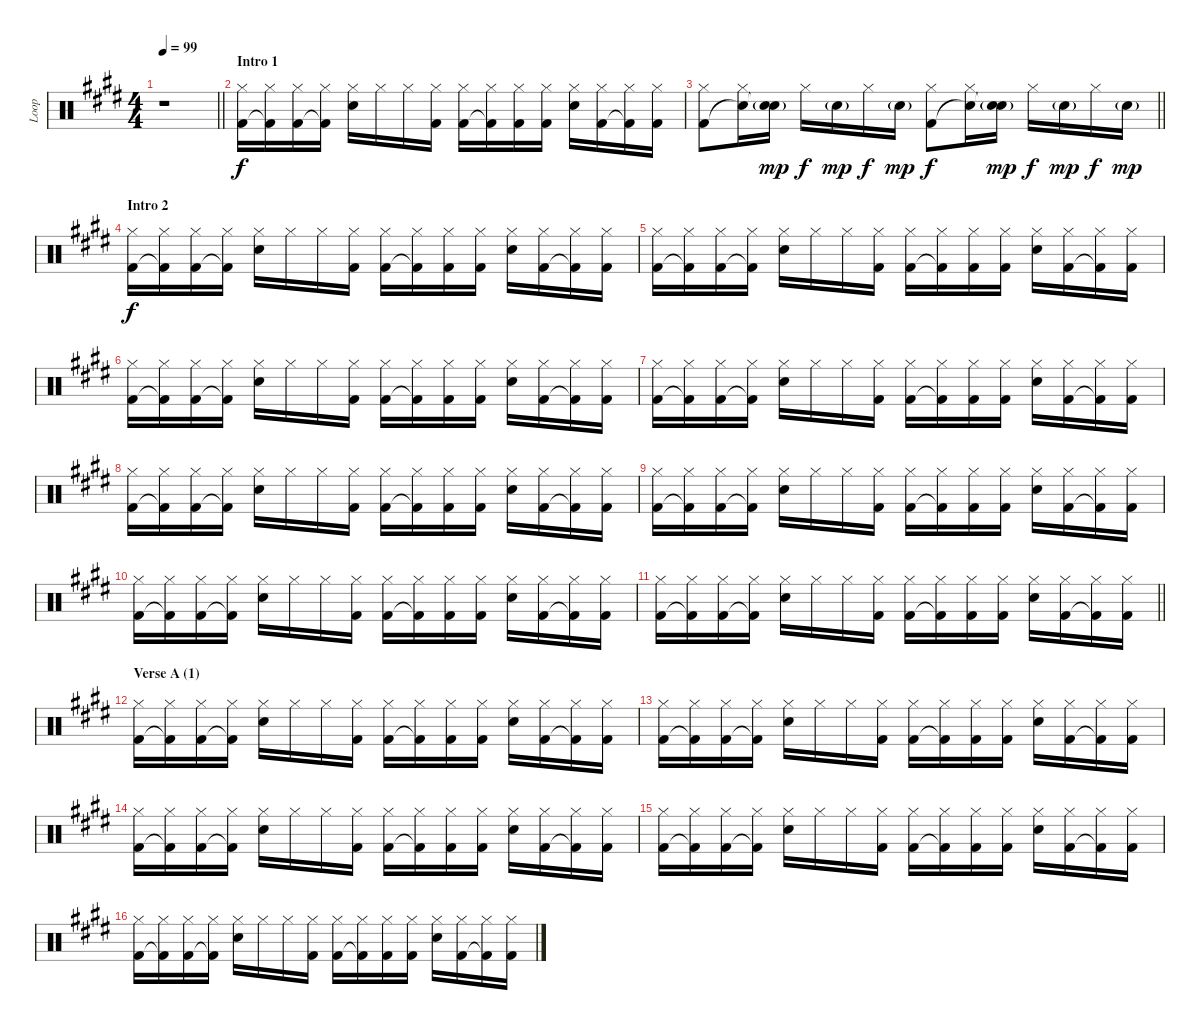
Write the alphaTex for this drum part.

\track ("Loop" "Loop") {instrument percussion}
\staff {score}
\articulation defaults
\ts (4 4)
\tempo 99
\clef neutral
\barLineRight lightlight
\ks c#minor
r.1{dy f} |
\section ("" "Intro 1")
("Hi-Hat (closed)" "Kick (hit) 2").16 ("Hi-Hat (closed)" "Kick (hit) 2"{t}).16 ("Hi-Hat (closed)" "Kick (hit) 2").16 ("Hi-Hat (closed)" "Kick (hit) 2"{t}).16 ("Hi-Hat (closed)" "Electric Snare (hit)").16 "Hi-Hat (closed)".16 "Hi-Hat (closed)".16 ("Hi-Hat (closed)" "Kick (hit) 2").16 ("Hi-Hat (closed)" "Kick (hit) 2").16 ("Hi-Hat (closed)" "Kick (hit) 2"{t}).16 ("Hi-Hat (closed)" "Kick (hit) 2").16 ("Hi-Hat (closed)" "Kick (hit) 2").16 ("Hi-Hat (closed)" "Electric Snare (hit)").16 ("Hi-Hat (closed)" "Kick (hit) 2").16 ("Hi-Hat (closed)" "Kick (hit) 2"{t}).16 ("Hi-Hat (closed)" "Kick (hit) 2").16 |
\barLineRight lightlight
("Hi-Hat (closed)" "Kick (hit) 2").8 ("Hi-Hat (closed)" "Snare (hit)"{t}).16 ("Electric Snare (hit)"{g} "Snare (hit)"{t}).16{dy mp} "Hi-Hat (closed)".16{dy f} "Electric Snare (hit)"{g}.16{dy mp} "Hi-Hat (closed)".16{dy f} "Electric Snare (hit)"{g}.16{dy mp} ("Hi-Hat (closed)" "Kick (hit) 2").8{dy f} ("Hi-Hat (closed)" "Snare (hit)"{t}).16 ("Electric Snare (hit)"{g} "Snare (hit)"{t}).16{dy mp} "Hi-Hat (closed)".16{dy f} "Electric Snare (hit)"{g}.16{dy mp} "Hi-Hat (closed)".16{dy f} "Electric Snare (hit)"{g}.16{dy mp} |
\section ("" "Intro 2")
("Hi-Hat (closed)" "Kick (hit) 2").16{dy f} ("Hi-Hat (closed)" "Kick (hit) 2"{t}).16 ("Hi-Hat (closed)" "Kick (hit) 2").16 ("Hi-Hat (closed)" "Kick (hit) 2"{t}).16 ("Hi-Hat (closed)" "Electric Snare (hit)").16 "Hi-Hat (closed)".16 "Hi-Hat (closed)".16 ("Hi-Hat (closed)" "Kick (hit) 2").16 ("Hi-Hat (closed)" "Kick (hit) 2").16 ("Hi-Hat (closed)" "Kick (hit) 2"{t}).16 ("Hi-Hat (closed)" "Kick (hit) 2").16 ("Hi-Hat (closed)" "Kick (hit) 2").16 ("Hi-Hat (closed)" "Electric Snare (hit)").16 ("Hi-Hat (closed)" "Kick (hit) 2").16 ("Hi-Hat (closed)" "Kick (hit) 2"{t}).16 ("Hi-Hat (closed)" "Kick (hit) 2").16 |
("Hi-Hat (closed)" "Kick (hit) 2").16 ("Hi-Hat (closed)" "Kick (hit) 2"{t}).16 ("Hi-Hat (closed)" "Kick (hit) 2").16 ("Hi-Hat (closed)" "Kick (hit) 2"{t}).16 ("Hi-Hat (closed)" "Electric Snare (hit)").16 "Hi-Hat (closed)".16 "Hi-Hat (closed)".16 ("Hi-Hat (closed)" "Kick (hit) 2").16 ("Hi-Hat (closed)" "Kick (hit) 2").16 ("Hi-Hat (closed)" "Kick (hit) 2"{t}).16 ("Hi-Hat (closed)" "Kick (hit) 2").16 ("Hi-Hat (closed)" "Kick (hit) 2").16 ("Hi-Hat (closed)" "Electric Snare (hit)").16 ("Hi-Hat (closed)" "Kick (hit) 2").16 ("Hi-Hat (closed)" "Kick (hit) 2"{t}).16 ("Hi-Hat (closed)" "Kick (hit) 2").16 |
("Hi-Hat (closed)" "Kick (hit) 2").16 ("Hi-Hat (closed)" "Kick (hit) 2"{t}).16 ("Hi-Hat (closed)" "Kick (hit) 2").16 ("Hi-Hat (closed)" "Kick (hit) 2"{t}).16 ("Hi-Hat (closed)" "Electric Snare (hit)").16 "Hi-Hat (closed)".16 "Hi-Hat (closed)".16 ("Hi-Hat (closed)" "Kick (hit) 2").16 ("Hi-Hat (closed)" "Kick (hit) 2").16 ("Hi-Hat (closed)" "Kick (hit) 2"{t}).16 ("Hi-Hat (closed)" "Kick (hit) 2").16 ("Hi-Hat (closed)" "Kick (hit) 2").16 ("Hi-Hat (closed)" "Electric Snare (hit)").16 ("Hi-Hat (closed)" "Kick (hit) 2").16 ("Hi-Hat (closed)" "Kick (hit) 2"{t}).16 ("Hi-Hat (closed)" "Kick (hit) 2").16 |
("Hi-Hat (closed)" "Kick (hit) 2").16 ("Hi-Hat (closed)" "Kick (hit) 2"{t}).16 ("Hi-Hat (closed)" "Kick (hit) 2").16 ("Hi-Hat (closed)" "Kick (hit) 2"{t}).16 ("Hi-Hat (closed)" "Electric Snare (hit)").16 "Hi-Hat (closed)".16 "Hi-Hat (closed)".16 ("Hi-Hat (closed)" "Kick (hit) 2").16 ("Hi-Hat (closed)" "Kick (hit) 2").16 ("Hi-Hat (closed)" "Kick (hit) 2"{t}).16 ("Hi-Hat (closed)" "Kick (hit) 2").16 ("Hi-Hat (closed)" "Kick (hit) 2").16 ("Hi-Hat (closed)" "Electric Snare (hit)").16 ("Hi-Hat (closed)" "Kick (hit) 2").16 ("Hi-Hat (closed)" "Kick (hit) 2"{t}).16 ("Hi-Hat (closed)" "Kick (hit) 2").16 |
("Hi-Hat (closed)" "Kick (hit) 2").16 ("Hi-Hat (closed)" "Kick (hit) 2"{t}).16 ("Hi-Hat (closed)" "Kick (hit) 2").16 ("Hi-Hat (closed)" "Kick (hit) 2"{t}).16 ("Hi-Hat (closed)" "Electric Snare (hit)").16 "Hi-Hat (closed)".16 "Hi-Hat (closed)".16 ("Hi-Hat (closed)" "Kick (hit) 2").16 ("Hi-Hat (closed)" "Kick (hit) 2").16 ("Hi-Hat (closed)" "Kick (hit) 2"{t}).16 ("Hi-Hat (closed)" "Kick (hit) 2").16 ("Hi-Hat (closed)" "Kick (hit) 2").16 ("Hi-Hat (closed)" "Electric Snare (hit)").16 ("Hi-Hat (closed)" "Kick (hit) 2").16 ("Hi-Hat (closed)" "Kick (hit) 2"{t}).16 ("Hi-Hat (closed)" "Kick (hit) 2").16 |
("Hi-Hat (closed)" "Kick (hit) 2").16 ("Hi-Hat (closed)" "Kick (hit) 2"{t}).16 ("Hi-Hat (closed)" "Kick (hit) 2").16 ("Hi-Hat (closed)" "Kick (hit) 2"{t}).16 ("Hi-Hat (closed)" "Electric Snare (hit)").16 "Hi-Hat (closed)".16 "Hi-Hat (closed)".16 ("Hi-Hat (closed)" "Kick (hit) 2").16 ("Hi-Hat (closed)" "Kick (hit) 2").16 ("Hi-Hat (closed)" "Kick (hit) 2"{t}).16 ("Hi-Hat (closed)" "Kick (hit) 2").16 ("Hi-Hat (closed)" "Kick (hit) 2").16 ("Hi-Hat (closed)" "Electric Snare (hit)").16 ("Hi-Hat (closed)" "Kick (hit) 2").16 ("Hi-Hat (closed)" "Kick (hit) 2"{t}).16 ("Hi-Hat (closed)" "Kick (hit) 2").16 |
("Hi-Hat (closed)" "Kick (hit) 2").16 ("Hi-Hat (closed)" "Kick (hit) 2"{t}).16 ("Hi-Hat (closed)" "Kick (hit) 2").16 ("Hi-Hat (closed)" "Kick (hit) 2"{t}).16 ("Hi-Hat (closed)" "Electric Snare (hit)").16 "Hi-Hat (closed)".16 "Hi-Hat (closed)".16 ("Hi-Hat (closed)" "Kick (hit) 2").16 ("Hi-Hat (closed)" "Kick (hit) 2").16 ("Hi-Hat (closed)" "Kick (hit) 2"{t}).16 ("Hi-Hat (closed)" "Kick (hit) 2").16 ("Hi-Hat (closed)" "Kick (hit) 2").16 ("Hi-Hat (closed)" "Electric Snare (hit)").16 ("Hi-Hat (closed)" "Kick (hit) 2").16 ("Hi-Hat (closed)" "Kick (hit) 2"{t}).16 ("Hi-Hat (closed)" "Kick (hit) 2").16 |
\barLineRight lightlight
("Hi-Hat (closed)" "Kick (hit) 2").16 ("Hi-Hat (closed)" "Kick (hit) 2"{t}).16 ("Hi-Hat (closed)" "Kick (hit) 2").16 ("Hi-Hat (closed)" "Kick (hit) 2"{t}).16 ("Hi-Hat (closed)" "Electric Snare (hit)").16 "Hi-Hat (closed)".16 "Hi-Hat (closed)".16 ("Hi-Hat (closed)" "Kick (hit) 2").16 ("Hi-Hat (closed)" "Kick (hit) 2").16 ("Hi-Hat (closed)" "Kick (hit) 2"{t}).16 ("Hi-Hat (closed)" "Kick (hit) 2").16 ("Hi-Hat (closed)" "Kick (hit) 2").16 ("Hi-Hat (closed)" "Electric Snare (hit)").16 ("Hi-Hat (closed)" "Kick (hit) 2").16 ("Hi-Hat (closed)" "Kick (hit) 2"{t}).16 ("Hi-Hat (closed)" "Kick (hit) 2").16 |
\section ("" "Verse A (1)")
("Hi-Hat (closed)" "Kick (hit) 2").16 ("Hi-Hat (closed)" "Kick (hit) 2"{t}).16 ("Hi-Hat (closed)" "Kick (hit) 2").16 ("Hi-Hat (closed)" "Kick (hit) 2"{t}).16 ("Hi-Hat (closed)" "Electric Snare (hit)").16 "Hi-Hat (closed)".16 "Hi-Hat (closed)".16 ("Hi-Hat (closed)" "Kick (hit) 2").16 ("Hi-Hat (closed)" "Kick (hit) 2").16 ("Hi-Hat (closed)" "Kick (hit) 2"{t}).16 ("Hi-Hat (closed)" "Kick (hit) 2").16 ("Hi-Hat (closed)" "Kick (hit) 2").16 ("Hi-Hat (closed)" "Electric Snare (hit)").16 ("Hi-Hat (closed)" "Kick (hit) 2").16 ("Hi-Hat (closed)" "Kick (hit) 2"{t}).16 ("Hi-Hat (closed)" "Kick (hit) 2").16 |
("Hi-Hat (closed)" "Kick (hit) 2").16 ("Hi-Hat (closed)" "Kick (hit) 2"{t}).16 ("Hi-Hat (closed)" "Kick (hit) 2").16 ("Hi-Hat (closed)" "Kick (hit) 2"{t}).16 ("Hi-Hat (closed)" "Electric Snare (hit)").16 "Hi-Hat (closed)".16 "Hi-Hat (closed)".16 ("Hi-Hat (closed)" "Kick (hit) 2").16 ("Hi-Hat (closed)" "Kick (hit) 2").16 ("Hi-Hat (closed)" "Kick (hit) 2"{t}).16 ("Hi-Hat (closed)" "Kick (hit) 2").16 ("Hi-Hat (closed)" "Kick (hit) 2").16 ("Hi-Hat (closed)" "Electric Snare (hit)").16 ("Hi-Hat (closed)" "Kick (hit) 2").16 ("Hi-Hat (closed)" "Kick (hit) 2"{t}).16 ("Hi-Hat (closed)" "Kick (hit) 2").16 |
("Hi-Hat (closed)" "Kick (hit) 2").16 ("Hi-Hat (closed)" "Kick (hit) 2"{t}).16 ("Hi-Hat (closed)" "Kick (hit) 2").16 ("Hi-Hat (closed)" "Kick (hit) 2"{t}).16 ("Hi-Hat (closed)" "Electric Snare (hit)").16 "Hi-Hat (closed)".16 "Hi-Hat (closed)".16 ("Hi-Hat (closed)" "Kick (hit) 2").16 ("Hi-Hat (closed)" "Kick (hit) 2").16 ("Hi-Hat (closed)" "Kick (hit) 2"{t}).16 ("Hi-Hat (closed)" "Kick (hit) 2").16 ("Hi-Hat (closed)" "Kick (hit) 2").16 ("Hi-Hat (closed)" "Electric Snare (hit)").16 ("Hi-Hat (closed)" "Kick (hit) 2").16 ("Hi-Hat (closed)" "Kick (hit) 2"{t}).16 ("Hi-Hat (closed)" "Kick (hit) 2").16 |
("Hi-Hat (closed)" "Kick (hit) 2").16 ("Hi-Hat (closed)" "Kick (hit) 2"{t}).16 ("Hi-Hat (closed)" "Kick (hit) 2").16 ("Hi-Hat (closed)" "Kick (hit) 2"{t}).16 ("Hi-Hat (closed)" "Electric Snare (hit)").16 "Hi-Hat (closed)".16 "Hi-Hat (closed)".16 ("Hi-Hat (closed)" "Kick (hit) 2").16 ("Hi-Hat (closed)" "Kick (hit) 2").16 ("Hi-Hat (closed)" "Kick (hit) 2"{t}).16 ("Hi-Hat (closed)" "Kick (hit) 2").16 ("Hi-Hat (closed)" "Kick (hit) 2").16 ("Hi-Hat (closed)" "Electric Snare (hit)").16 ("Hi-Hat (closed)" "Kick (hit) 2").16 ("Hi-Hat (closed)" "Kick (hit) 2"{t}).16 ("Hi-Hat (closed)" "Kick (hit) 2").16 |
("Hi-Hat (closed)" "Kick (hit) 2").16 ("Hi-Hat (closed)" "Kick (hit) 2"{t}).16 ("Hi-Hat (closed)" "Kick (hit) 2").16 ("Hi-Hat (closed)" "Kick (hit) 2"{t}).16 ("Hi-Hat (closed)" "Electric Snare (hit)").16 "Hi-Hat (closed)".16 "Hi-Hat (closed)".16 ("Hi-Hat (closed)" "Kick (hit) 2").16 ("Hi-Hat (closed)" "Kick (hit) 2").16 ("Hi-Hat (closed)" "Kick (hit) 2"{t}).16 ("Hi-Hat (closed)" "Kick (hit) 2").16 ("Hi-Hat (closed)" "Kick (hit) 2").16 ("Hi-Hat (closed)" "Electric Snare (hit)").16 ("Hi-Hat (closed)" "Kick (hit) 2").16 ("Hi-Hat (closed)" "Kick (hit) 2"{t}).16 ("Hi-Hat (closed)" "Kick (hit) 2").16
